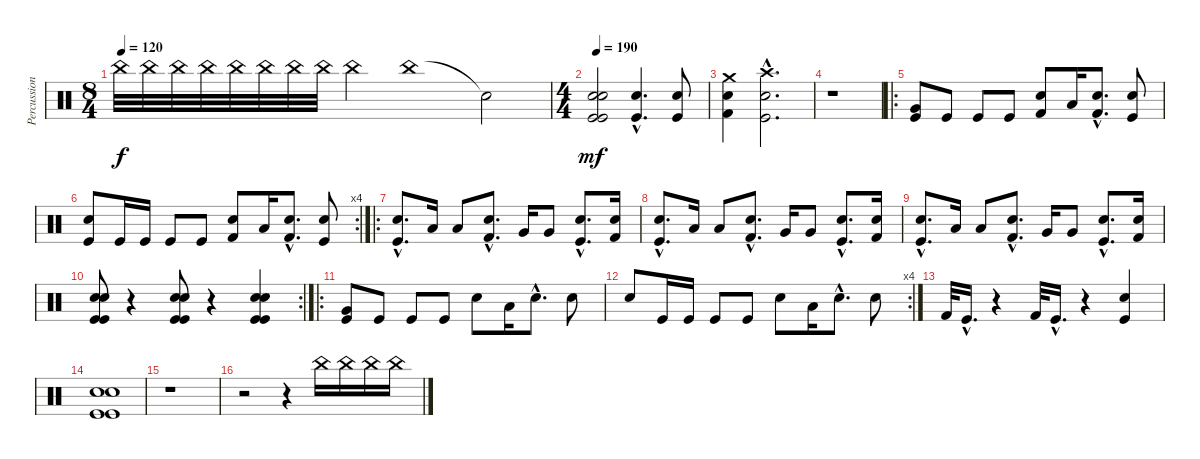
\track ("Percussion" "Percussion") {instrument percussion}
\staff {score}
\articulation defaults
\ts (8 4)
\tempo 120
\clef neutral
\ks c "China (hit)".32{dy f} "China (hit)".32 "China (hit)".32 "China (hit)".32 "China (hit)".32 "China (hit)".32 "China (hit)".32 "China (hit)".32 "China (hit)".4 "China (hit)".1 "Snare (hit)"{t}.2
|
\ts (4 4)
\tempo 190
("Electric Snare (hit)" "Electric Snare (hit)" "Kick (hit)" "Kick (hit)").2{dy mf volume 12} ("Snare (hit) 2"{hac} "Kick (hit)"{hac}).4{d} ("Snare (hit) 2" "Kick (hit)").8 |
("Electric Snare (hit)" "Kick (hit) 2" "Crash medium (hit)").4 ("Snare (hit) 2"{hac} "Kick (hit)"{hac} "Crash high (hit)"{hac}).2{d} |
r.1 |
\ro
("Kick (hit)" "Very Low Tom (hit)").8 "Kick (hit)".8 "Kick (hit)".8 "Kick (hit)".8 ("Electric Snare (hit)" "Kick (hit) 2").8 "Low Tom (hit)".16 ("Electric Snare (hit)"{hac} "Kick (hit) 2"{hac}).8{d} ("Snare (hit) 2" "Kick (hit)").8 |
\rc 4
("Snare (hit) 2" "Kick (hit)").8 "Kick (hit)".16 "Kick (hit)".16 "Kick (hit)".8 "Kick (hit)".8 ("Electric Snare (hit)" "Kick (hit) 2").8 "Low Tom (hit)".16 ("Electric Snare (hit)"{hac} "Kick (hit) 2"{hac}).8{d} ("Snare (hit) 2" "Kick (hit)").8 |
\ro
("Electric Snare (hit)"{hac} "Kick (hit)"{hac}).8{d} "Low Tom (hit)".16 "Low Tom (hit)".8 ("Electric Snare (hit)"{hac} "Kick (hit) 2"{hac}).8{d} "Very Low Tom (hit)".16 "Very Low Tom (hit)".8 ("Snare (hit) 2"{hac} "Kick (hit)"{hac}).8{d} ("Electric Snare (hit)" "Kick (hit) 2").16 |
("Electric Snare (hit)"{hac} "Kick (hit)"{hac}).8{d} "Low Tom (hit)".16 "Low Tom (hit)".8 ("Electric Snare (hit)"{hac} "Kick (hit) 2"{hac}).8{d} "Very Low Tom (hit)".16 "Very Low Tom (hit)".8 ("Snare (hit) 2"{hac} "Kick (hit)"{hac}).8{d} ("Electric Snare (hit)" "Kick (hit) 2").16 |
("Electric Snare (hit)"{hac} "Kick (hit)"{hac}).8{d} "Low Tom (hit)".16 "Low Tom (hit)".8 ("Electric Snare (hit)"{hac} "Kick (hit) 2"{hac}).8{d} "Very Low Tom (hit)".16 "Very Low Tom (hit)".8 ("Snare (hit) 2"{hac} "Kick (hit)"{hac}).8{d} ("Electric Snare (hit)" "Kick (hit) 2").16 |
\rc 2
("Electric Snare (hit)" "Electric Snare (hit)" "Kick (hit)" "Kick (hit)").8 r.4 ("Electric Snare (hit)" "Electric Snare (hit)" "Kick (hit)" "Kick (hit)").8 r.4 ("Electric Snare (hit)" "Electric Snare (hit)" "Kick (hit)" "Kick (hit)").4 |
\ro
("Kick (hit)" "Very Low Tom (hit)").8 "Kick (hit)".8 "Kick (hit)".8 "Kick (hit)".8 "Electric Snare (hit)".8 "Low Tom (hit)".16 "Electric Snare (hit)"{hac}.8{d} "Snare (hit) 2".8 |
\rc 4 "Snare (hit) 2".8 "Kick (hit)".16 "Kick (hit)".16 "Kick (hit)".8 "Kick (hit)".8 "Electric Snare (hit)".8 "Low Tom (hit)".16 "Electric Snare (hit)"{hac}.8{d} "Snare (hit) 2".8
|
"Kick (hit) 2".32 "Kick (hit)"{hac}.16{d} r.4 "Kick (hit) 2".32 "Kick (hit)"{hac}.16{d} r.4 ("Electric Snare (hit)" "Kick (hit)").4 |
("Electric Snare (hit)" "Electric Snare (hit)" "Kick (hit)" "Kick (hit)").1 |
r.1 |
r.2 r.4 "China (hit)".16 "China (hit)".16 "China (hit)".16 "China (hit)".16
